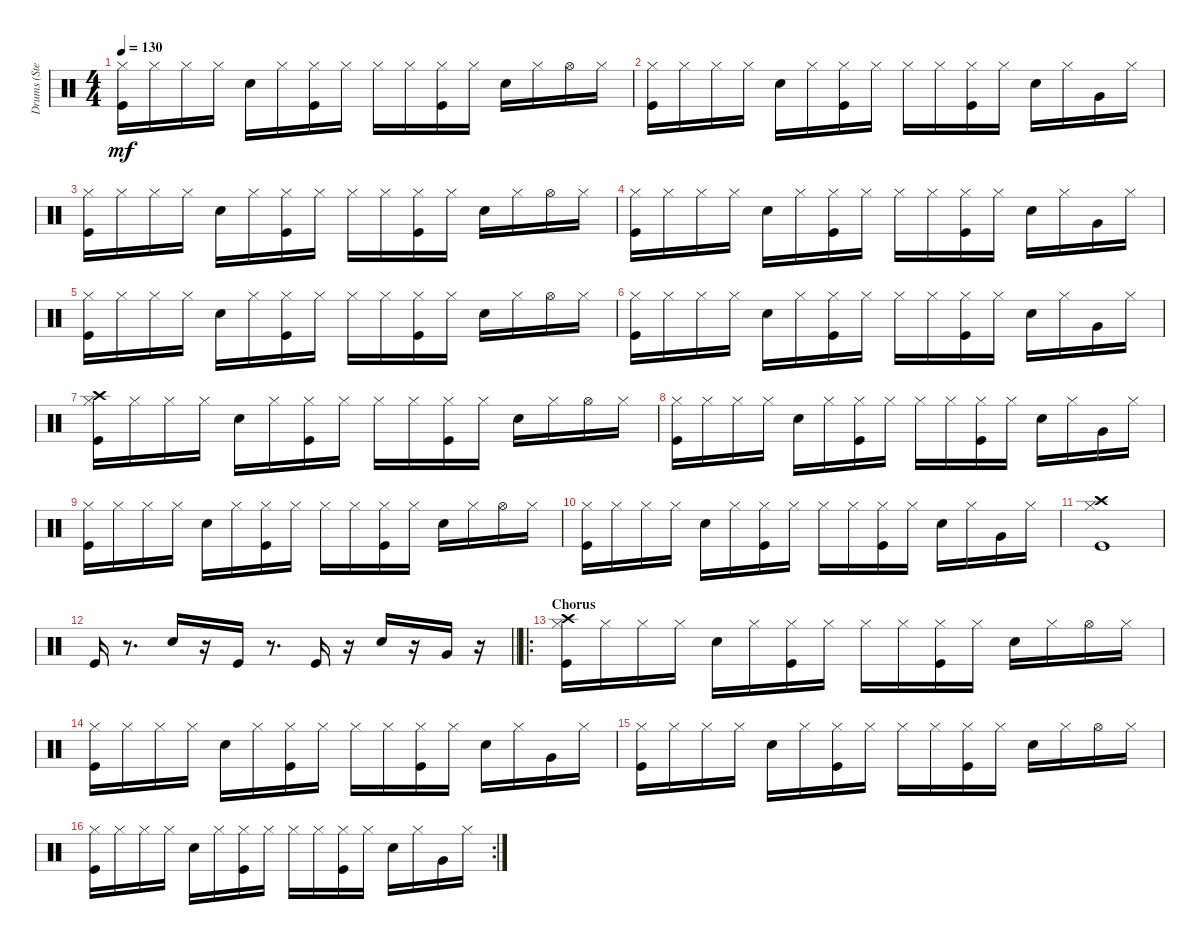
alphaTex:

\track ("Drums (Stephen Morris)" "Drums (Ste") {instrument percussion}
\staff {score}
\articulation defaults
\ts (4 4)
\tempo 130
\clef neutral
\ks c
("Hi-Hat (closed)" "Kick (hit)").16{dy mf} "Hi-Hat (closed)".16 "Hi-Hat (closed)".16 "Hi-Hat (closed)".16 "Snare (hit) 2".16 "Hi-Hat (closed)".16 ("Kick (hit)" "Hi-Hat (closed)").16 "Hi-Hat (closed)".16 "Hi-Hat (closed)".16 "Hi-Hat (closed)".16 ("Kick (hit)" "Hi-Hat (closed)").16 "Hi-Hat (closed)".16 "Snare (hit) 2".16 "Hi-Hat (closed)".16 "Hi-Hat (open)".16 "Hi-Hat (closed)".16 |
("Kick (hit)" "Hi-Hat (closed)").16 "Hi-Hat (closed)".16 "Hi-Hat (closed)".16 "Hi-Hat (closed)".16 "Snare (hit) 2".16 "Hi-Hat (closed)".16 ("Hi-Hat (closed)" "Kick (hit)").16 "Hi-Hat (closed)".16 "Hi-Hat (closed)".16 "Hi-Hat (closed)".16 ("Kick (hit)" "Hi-Hat (closed)").16 "Hi-Hat (closed)".16 "Snare (hit) 2".16 "Hi-Hat (closed)".16 "Very Low Tom (hit)".16 "Hi-Hat (closed)".16 |
("Hi-Hat (closed)" "Kick (hit)").16 "Hi-Hat (closed)".16 "Hi-Hat (closed)".16 "Hi-Hat (closed)".16 "Snare (hit) 2".16 "Hi-Hat (closed)".16 ("Kick (hit)" "Hi-Hat (closed)").16 "Hi-Hat (closed)".16 "Hi-Hat (closed)".16 "Hi-Hat (closed)".16 ("Kick (hit)" "Hi-Hat (closed)").16 "Hi-Hat (closed)".16 "Snare (hit) 2".16 "Hi-Hat (closed)".16 "Hi-Hat (open)".16 "Hi-Hat (closed)".16 |
("Kick (hit)" "Hi-Hat (closed)").16 "Hi-Hat (closed)".16 "Hi-Hat (closed)".16 "Hi-Hat (closed)".16 "Snare (hit) 2".16 "Hi-Hat (closed)".16 ("Kick (hit)" "Hi-Hat (closed)").16 "Hi-Hat (closed)".16 "Hi-Hat (closed)".16 "Hi-Hat (closed)".16 ("Kick (hit)" "Hi-Hat (closed)").16 "Hi-Hat (closed)".16 "Snare (hit) 2".16 "Hi-Hat (closed)".16 "Very Low Tom (hit)".16 "Hi-Hat (closed)".16 |
("Hi-Hat (closed)" "Kick (hit)").16 "Hi-Hat (closed)".16 "Hi-Hat (closed)".16 "Hi-Hat (closed)".16 "Snare (hit) 2".16 "Hi-Hat (closed)".16 ("Hi-Hat (closed)" "Kick (hit)").16 "Hi-Hat (closed)".16 "Hi-Hat (closed)".16 "Hi-Hat (closed)".16 ("Hi-Hat (closed)" "Kick (hit)").16 "Hi-Hat (closed)".16 "Snare (hit) 2".16 "Hi-Hat (closed)".16 "Hi-Hat (open)".16 "Hi-Hat (closed)".16 |
("Kick (hit)" "Hi-Hat (closed)").16 "Hi-Hat (closed)".16 "Hi-Hat (closed)".16 "Hi-Hat (closed)".16 "Snare (hit) 2".16 "Hi-Hat (closed)".16 ("Kick (hit)" "Hi-Hat (closed)").16 "Hi-Hat (closed)".16 "Hi-Hat (closed)".16 "Hi-Hat (closed)".16 ("Kick (hit)" "Hi-Hat (closed)").16 "Hi-Hat (closed)".16 "Snare (hit) 2".16 "Hi-Hat (closed)".16 "Very Low Tom (hit)".16 "Hi-Hat (closed)".16 |
("Crash high (hit)" "Hi-Hat (closed)" "Kick (hit)").16 "Hi-Hat (closed)".16 "Hi-Hat (closed)".16 "Hi-Hat (closed)".16 "Snare (hit) 2".16 "Hi-Hat (closed)".16 ("Hi-Hat (closed)" "Kick (hit)").16 "Hi-Hat (closed)".16 "Hi-Hat (closed)".16 "Hi-Hat (closed)".16 ("Hi-Hat (closed)" "Kick (hit)").16 "Hi-Hat (closed)".16 "Snare (hit) 2".16 "Hi-Hat (closed)".16 "Hi-Hat (open)".16 "Hi-Hat (closed)".16 |
("Hi-Hat (closed)" "Kick (hit)").16 "Hi-Hat (closed)".16 "Hi-Hat (closed)".16 "Hi-Hat (closed)".16 "Snare (hit) 2".16 "Hi-Hat (closed)".16 ("Hi-Hat (closed)" "Kick (hit)").16 "Hi-Hat (closed)".16 "Hi-Hat (closed)".16 "Hi-Hat (closed)".16 ("Hi-Hat (closed)" "Kick (hit)").16 "Hi-Hat (closed)".16 "Snare (hit) 2".16 "Hi-Hat (closed)".16 "Very Low Tom (hit)".16 "Hi-Hat (closed)".16 |
("Hi-Hat (closed)" "Kick (hit)").16 "Hi-Hat (closed)".16 "Hi-Hat (closed)".16 "Hi-Hat (closed)".16 "Snare (hit) 2".16 "Hi-Hat (closed)".16 ("Hi-Hat (closed)" "Kick (hit)").16 "Hi-Hat (closed)".16 "Hi-Hat (closed)".16 "Hi-Hat (closed)".16 ("Kick (hit)" "Hi-Hat (closed)").16 "Hi-Hat (closed)".16 "Snare (hit) 2".16 "Hi-Hat (closed)".16 "Hi-Hat (open)".16 "Hi-Hat (closed)".16 |
("Hi-Hat (closed)" "Kick (hit)").16 "Hi-Hat (closed)".16 "Hi-Hat (closed)".16 "Hi-Hat (closed)".16 "Snare (hit) 2".16 "Hi-Hat (closed)".16 ("Kick (hit)" "Hi-Hat (closed)").16 "Hi-Hat (closed)".16 "Hi-Hat (closed)".16 "Hi-Hat (closed)".16 ("Kick (hit)" "Hi-Hat (closed)").16 "Hi-Hat (closed)".16 "Snare (hit) 2".16 "Hi-Hat (closed)".16 "Very Low Tom (hit)".16 "Hi-Hat (closed)".16 |
("Crash high (hit)" "Hi-Hat (closed)" "Kick (hit)").1 |
\barLineRight lightlight "Kick (hit)".16
r.8{d} "Hand Clap (hit)".16 r.16 "Kick (hit)".16 r.8{d} "Kick (hit)".16 r.16 "Hand Clap (hit)".16 r.16 "Very Low Tom (hit)".16 r.16 |
\ro
\section ("" "Chorus")
("Hi-Hat (closed)" "Crash high (hit)" "Kick (hit)").16 "Hi-Hat (closed)".16 "Hi-Hat (closed)".16 "Hi-Hat (closed)".16 "Snare (hit) 2".16 "Hi-Hat (closed)".16 ("Kick (hit)" "Hi-Hat (closed)").16 "Hi-Hat (closed)".16 "Hi-Hat (closed)".16 "Hi-Hat (closed)".16 ("Kick (hit)" "Hi-Hat (closed)").16 "Hi-Hat (closed)".16 "Snare (hit) 2".16 "Hi-Hat (closed)".16 "Hi-Hat (open)".16 "Hi-Hat (closed)".16 |
("Hi-Hat (closed)" "Kick (hit)").16 "Hi-Hat (closed)".16 "Hi-Hat (closed)".16 "Hi-Hat (closed)".16 "Snare (hit) 2".16 "Hi-Hat (closed)".16 ("Hi-Hat (closed)" "Kick (hit)").16 "Hi-Hat (closed)".16 "Hi-Hat (closed)".16 "Hi-Hat (closed)".16 ("Hi-Hat (closed)" "Kick (hit)").16 "Hi-Hat (closed)".16 "Snare (hit) 2".16 "Hi-Hat (closed)".16 "Very Low Tom (hit)".16 "Hi-Hat (closed)".16 |
("Kick (hit)" "Hi-Hat (closed)").16 "Hi-Hat (closed)".16 "Hi-Hat (closed)".16 "Hi-Hat (closed)".16 "Snare (hit) 2".16 "Hi-Hat (closed)".16 ("Hi-Hat (closed)" "Kick (hit)").16 "Hi-Hat (closed)".16 "Hi-Hat (closed)".16 "Hi-Hat (closed)".16 ("Hi-Hat (closed)" "Kick (hit)").16 "Hi-Hat (closed)".16 "Snare (hit) 2".16 "Hi-Hat (closed)".16 "Hi-Hat (open)".16 "Hi-Hat (closed)".16 |
\rc 2
("Hi-Hat (closed)" "Kick (hit)").16 "Hi-Hat (closed)".16 "Hi-Hat (closed)".16 "Hi-Hat (closed)".16 "Snare (hit) 2".16 "Hi-Hat (closed)".16 ("Hi-Hat (closed)" "Kick (hit)").16 "Hi-Hat (closed)".16 "Hi-Hat (closed)".16 "Hi-Hat (closed)".16 ("Kick (hit)" "Hi-Hat (closed)").16 "Hi-Hat (closed)".16 "Snare (hit) 2".16 "Hi-Hat (closed)".16 "Very Low Tom (hit)".16 "Hi-Hat (closed)".16
